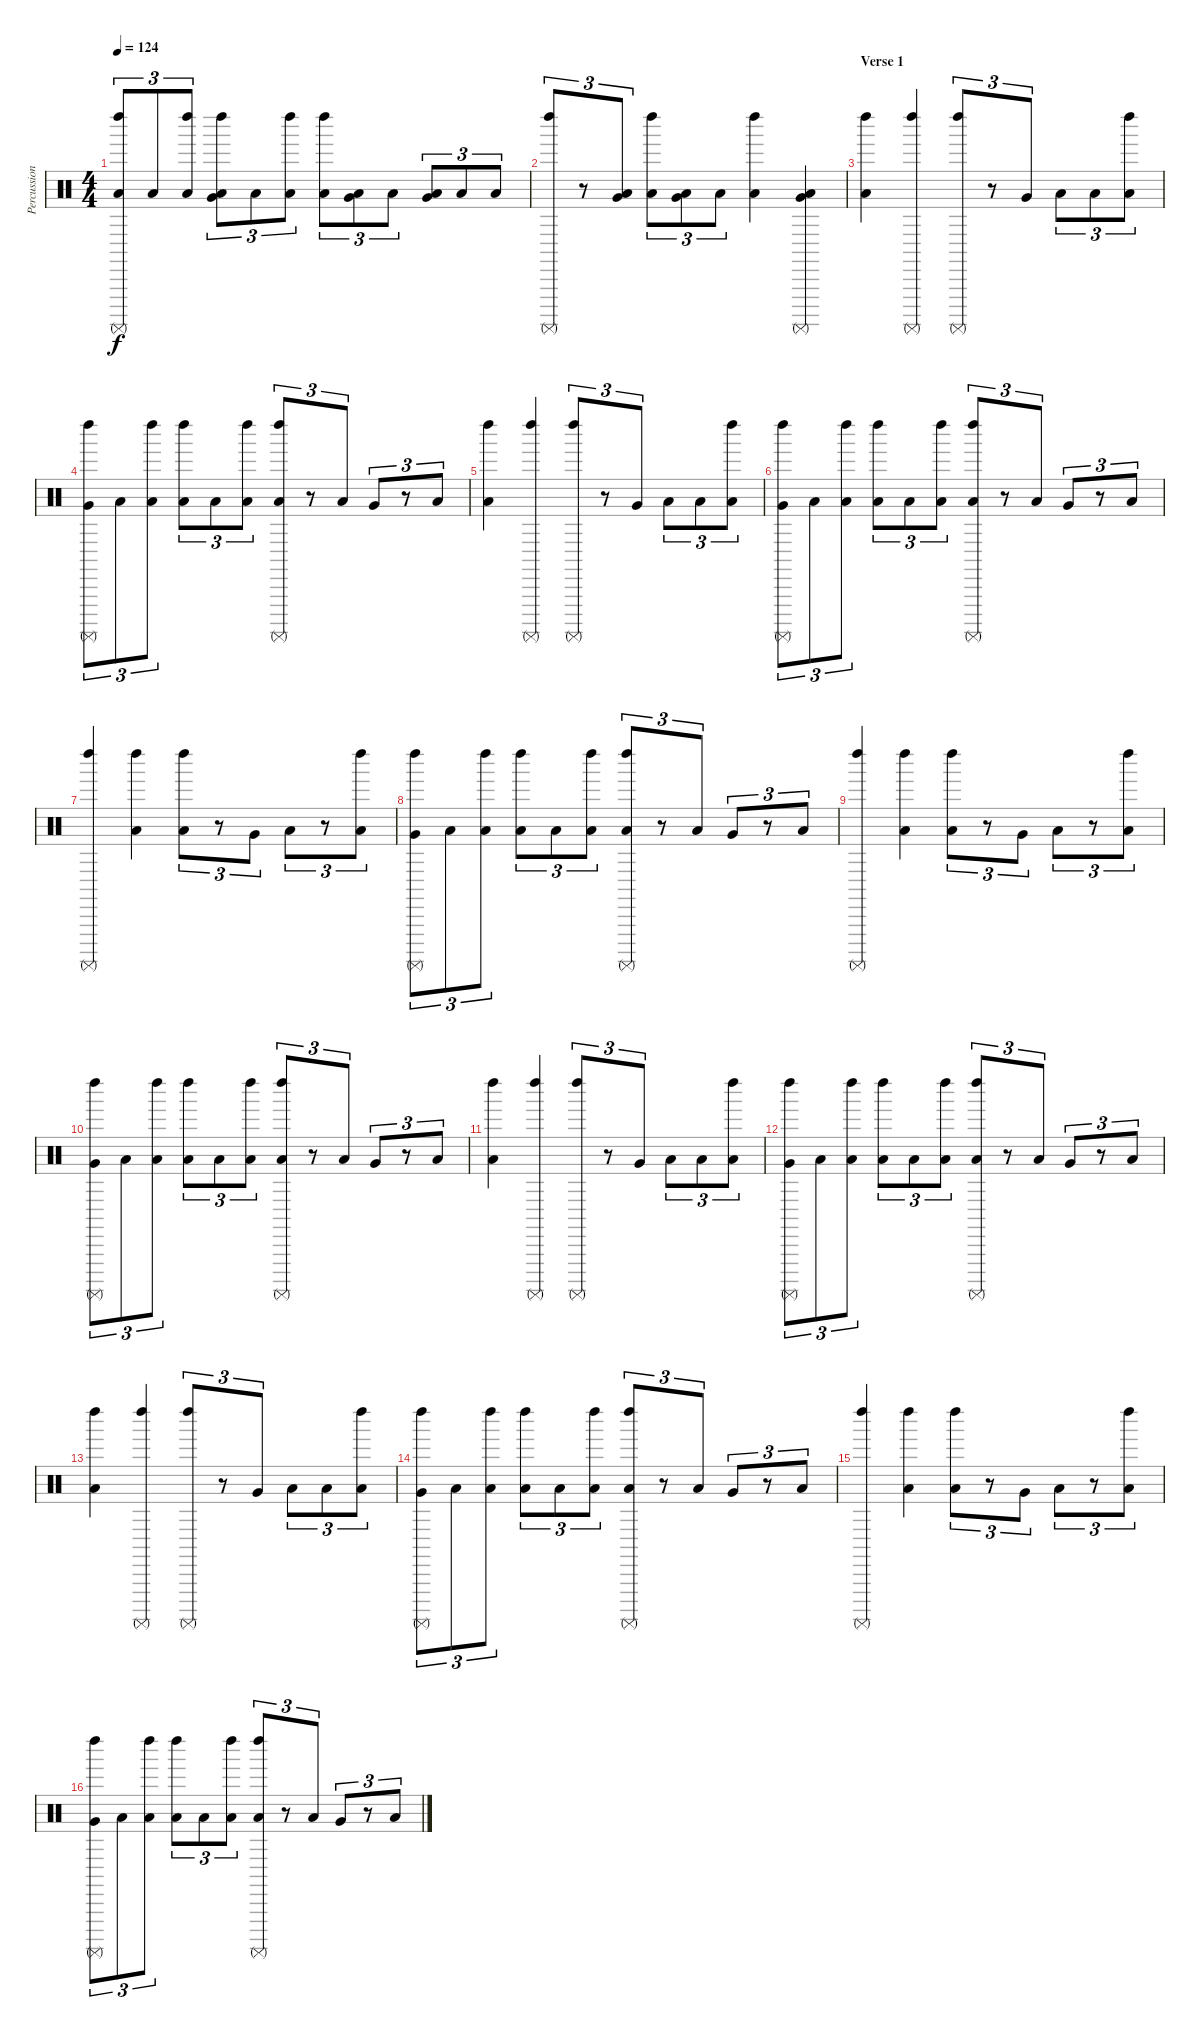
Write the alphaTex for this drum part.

\track ("Percussion" "Percussion") {instrument percussion}
\staff {score}
\articulation defaults
\ts (4 4)
\tempo 124
\clef neutral
\ks c
("Left Maraca (hit)" "Low Floor Tom (hit)" "Surdo (mute)").8{tu (3 2) dy f} "Low Floor Tom (hit)".8{tu (3 2)} ("Left Maraca (hit)" "Low Floor Tom (hit)").8{tu (3 2)} ("Left Maraca (hit)" "Very Low Tom (hit)" "Low Floor Tom (hit)").8{tu (3 2)} "Low Floor Tom (hit)".8{tu (3 2)} ("Left Maraca (hit)" "Low Floor Tom (hit)").8{tu (3 2)} ("Left Maraca (hit)" "Low Floor Tom (hit)").8{tu (3 2)} ("Very Low Tom (hit)" "Low Floor Tom (hit)").8{tu (3 2)} "Low Floor Tom (hit)".8{tu (3 2)} ("Very Low Tom (hit)" "Low Floor Tom (hit)").8{tu (3 2)} "Low Floor Tom (hit)".8{tu (3 2)} "Low Floor Tom (hit)".8{tu (3 2)} |
("Left Maraca (hit)" "Surdo (mute)").8{tu (3 2)} r.8{tu (3 2)} ("Very Low Tom (hit)" "Low Floor Tom (hit)").8{tu (3 2)} ("Left Maraca (hit)" "Low Floor Tom (hit)").8{tu (3 2)} ("Very Low Tom (hit)" "Low Floor Tom (hit)").8{tu (3 2)} "Low Floor Tom (hit)".8{tu (3 2)} ("Left Maraca (hit)" "Low Floor Tom (hit)").4 ("Very Low Tom (hit)" "Low Floor Tom (hit)" "Surdo (mute)").4 |
\section ("" "Verse 1")
("Left Maraca (hit)" "Low Floor Tom (hit)").4 ("Left Maraca (hit)" "Surdo (mute)").4 ("Left Maraca (hit)" "Surdo (mute)").8{tu (3 2)} r.8{tu (3 2)} "Very Low Tom (hit)".8{tu (3 2)} "Low Floor Tom (hit)".8{tu (3 2)} "Low Floor Tom (hit)".8{tu (3 2)} ("Left Maraca (hit)" "Low Floor Tom (hit)").8{tu (3 2)} |
("Left Maraca (hit)" "Very Low Tom (hit)" "Surdo (mute)").8{tu (3 2)} "Low Floor Tom (hit)".8{tu (3 2)} ("Left Maraca (hit)" "Low Floor Tom (hit)").8{tu (3 2)} ("Left Maraca (hit)" "Low Floor Tom (hit)").8{tu (3 2)} "Low Floor Tom (hit)".8{tu (3 2)} ("Left Maraca (hit)" "Low Floor Tom (hit)").8{tu (3 2)} ("Left Maraca (hit)" "Low Floor Tom (hit)" "Surdo (mute)").8{tu (3 2)} r.8{tu (3 2)} "Low Floor Tom (hit)".8{tu (3 2)} "Very Low Tom (hit)".8{tu (3 2)} r.8{tu (3 2)} "Low Floor Tom (hit)".8{tu (3 2)} |
("Left Maraca (hit)" "Low Floor Tom (hit)").4 ("Left Maraca (hit)" "Surdo (mute)").4 ("Left Maraca (hit)" "Surdo (mute)").8{tu (3 2)} r.8{tu (3 2)} "Very Low Tom (hit)".8{tu (3 2)} "Low Floor Tom (hit)".8{tu (3 2)} "Low Floor Tom (hit)".8{tu (3 2)} ("Left Maraca (hit)" "Low Floor Tom (hit)").8{tu (3 2)} |
("Left Maraca (hit)" "Very Low Tom (hit)" "Surdo (mute)").8{tu (3 2)} "Low Floor Tom (hit)".8{tu (3 2)} ("Left Maraca (hit)" "Low Floor Tom (hit)").8{tu (3 2)} ("Left Maraca (hit)" "Low Floor Tom (hit)").8{tu (3 2)} "Low Floor Tom (hit)".8{tu (3 2)} ("Left Maraca (hit)" "Low Floor Tom (hit)").8{tu (3 2)} ("Left Maraca (hit)" "Low Floor Tom (hit)" "Surdo (mute)").8{tu (3 2)} r.8{tu (3 2)} "Low Floor Tom (hit)".8{tu (3 2)} "Very Low Tom (hit)".8{tu (3 2)} r.8{tu (3 2)} "Low Floor Tom (hit)".8{tu (3 2)} |
("Left Maraca (hit)" "Surdo (mute)").4 ("Left Maraca (hit)" "Low Floor Tom (hit)").4 ("Left Maraca (hit)" "Low Floor Tom (hit)").8{tu (3 2)} r.8{tu (3 2)} "Very Low Tom (hit)".8{tu (3 2)} "Low Floor Tom (hit)".8{tu (3 2)} r.8{tu (3 2)} ("Left Maraca (hit)" "Low Floor Tom (hit)").8{tu (3 2)} |
("Left Maraca (hit)" "Very Low Tom (hit)" "Surdo (mute)").8{tu (3 2)} "Low Floor Tom (hit)".8{tu (3 2)} ("Left Maraca (hit)" "Low Floor Tom (hit)").8{tu (3 2)} ("Left Maraca (hit)" "Low Floor Tom (hit)").8{tu (3 2)} "Low Floor Tom (hit)".8{tu (3 2)} ("Left Maraca (hit)" "Low Floor Tom (hit)").8{tu (3 2)} ("Left Maraca (hit)" "Low Floor Tom (hit)" "Surdo (mute)").8{tu (3 2)} r.8{tu (3 2)} "Low Floor Tom (hit)".8{tu (3 2)} "Very Low Tom (hit)".8{tu (3 2)} r.8{tu (3 2)} "Low Floor Tom (hit)".8{tu (3 2)} |
("Left Maraca (hit)" "Surdo (mute)").4 ("Left Maraca (hit)" "Low Floor Tom (hit)").4 ("Left Maraca (hit)" "Low Floor Tom (hit)").8{tu (3 2)} r.8{tu (3 2)} "Very Low Tom (hit)".8{tu (3 2)} "Low Floor Tom (hit)".8{tu (3 2)} r.8{tu (3 2)} ("Left Maraca (hit)" "Low Floor Tom (hit)").8{tu (3 2)} |
("Left Maraca (hit)" "Very Low Tom (hit)" "Surdo (mute)").8{tu (3 2)} "Low Floor Tom (hit)".8{tu (3 2)} ("Left Maraca (hit)" "Low Floor Tom (hit)").8{tu (3 2)} ("Left Maraca (hit)" "Low Floor Tom (hit)").8{tu (3 2)} "Low Floor Tom (hit)".8{tu (3 2)} ("Left Maraca (hit)" "Low Floor Tom (hit)").8{tu (3 2)} ("Left Maraca (hit)" "Low Floor Tom (hit)" "Surdo (mute)").8{tu (3 2)} r.8{tu (3 2)} "Low Floor Tom (hit)".8{tu (3 2)} "Very Low Tom (hit)".8{tu (3 2)} r.8{tu (3 2)} "Low Floor Tom (hit)".8{tu (3 2)} |
("Left Maraca (hit)" "Low Floor Tom (hit)").4 ("Left Maraca (hit)" "Surdo (mute)").4 ("Left Maraca (hit)" "Surdo (mute)").8{tu (3 2)} r.8{tu (3 2)} "Very Low Tom (hit)".8{tu (3 2)} "Low Floor Tom (hit)".8{tu (3 2)} "Low Floor Tom (hit)".8{tu (3 2)} ("Left Maraca (hit)" "Low Floor Tom (hit)").8{tu (3 2)} |
("Left Maraca (hit)" "Very Low Tom (hit)" "Surdo (mute)").8{tu (3 2)} "Low Floor Tom (hit)".8{tu (3 2)} ("Left Maraca (hit)" "Low Floor Tom (hit)").8{tu (3 2)} ("Left Maraca (hit)" "Low Floor Tom (hit)").8{tu (3 2)} "Low Floor Tom (hit)".8{tu (3 2)} ("Left Maraca (hit)" "Low Floor Tom (hit)").8{tu (3 2)} ("Left Maraca (hit)" "Low Floor Tom (hit)" "Surdo (mute)").8{tu (3 2)} r.8{tu (3 2)} "Low Floor Tom (hit)".8{tu (3 2)} "Very Low Tom (hit)".8{tu (3 2)} r.8{tu (3 2)} "Low Floor Tom (hit)".8{tu (3 2)} |
("Left Maraca (hit)" "Low Floor Tom (hit)").4 ("Left Maraca (hit)" "Surdo (mute)").4 ("Left Maraca (hit)" "Surdo (mute)").8{tu (3 2)} r.8{tu (3 2)} "Very Low Tom (hit)".8{tu (3 2)} "Low Floor Tom (hit)".8{tu (3 2)} "Low Floor Tom (hit)".8{tu (3 2)} ("Left Maraca (hit)" "Low Floor Tom (hit)").8{tu (3 2)} |
("Left Maraca (hit)" "Very Low Tom (hit)" "Surdo (mute)").8{tu (3 2)} "Low Floor Tom (hit)".8{tu (3 2)} ("Left Maraca (hit)" "Low Floor Tom (hit)").8{tu (3 2)} ("Left Maraca (hit)" "Low Floor Tom (hit)").8{tu (3 2)} "Low Floor Tom (hit)".8{tu (3 2)} ("Left Maraca (hit)" "Low Floor Tom (hit)").8{tu (3 2)} ("Left Maraca (hit)" "Low Floor Tom (hit)" "Surdo (mute)").8{tu (3 2)} r.8{tu (3 2)} "Low Floor Tom (hit)".8{tu (3 2)} "Very Low Tom (hit)".8{tu (3 2)} r.8{tu (3 2)} "Low Floor Tom (hit)".8{tu (3 2)} |
("Left Maraca (hit)" "Surdo (mute)").4 ("Left Maraca (hit)" "Low Floor Tom (hit)").4 ("Left Maraca (hit)" "Low Floor Tom (hit)").8{tu (3 2)} r.8{tu (3 2)} "Very Low Tom (hit)".8{tu (3 2)} "Low Floor Tom (hit)".8{tu (3 2)} r.8{tu (3 2)} ("Left Maraca (hit)" "Low Floor Tom (hit)").8{tu (3 2)} |
("Left Maraca (hit)" "Very Low Tom (hit)" "Surdo (mute)").8{tu (3 2)} "Low Floor Tom (hit)".8{tu (3 2)} ("Left Maraca (hit)" "Low Floor Tom (hit)").8{tu (3 2)} ("Left Maraca (hit)" "Low Floor Tom (hit)").8{tu (3 2)} "Low Floor Tom (hit)".8{tu (3 2)} ("Left Maraca (hit)" "Low Floor Tom (hit)").8{tu (3 2)} ("Left Maraca (hit)" "Low Floor Tom (hit)" "Surdo (mute)").8{tu (3 2)} r.8{tu (3 2)} "Low Floor Tom (hit)".8{tu (3 2)} "Very Low Tom (hit)".8{tu (3 2)} r.8{tu (3 2)} "Low Floor Tom (hit)".8{tu (3 2)}
